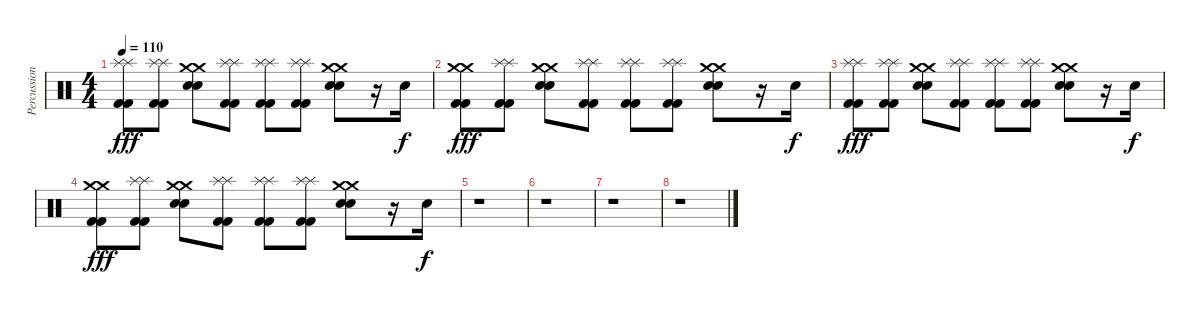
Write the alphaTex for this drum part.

\track ("Percussions" "Percussion") {instrument percussion}
\staff {score}
\articulation defaults
\ts (4 4)
\tempo 110
\clef neutral
\ks c
("Splash (hit)" "Splash (hit)" "Kick (hit) 2" "Kick (hit) 2").8{dy fff} ("Splash (hit)" "Splash (hit)" "Kick (hit) 2" "Kick (hit) 2").8 ("Crash medium (hit)" "Crash medium (hit)" "Snare (hit) 2" "Snare (hit) 2").8 ("Splash (hit)" "Splash (hit)" "Kick (hit) 2" "Kick (hit) 2").8 ("Splash (hit)" "Splash (hit)" "Kick (hit) 2" "Kick (hit) 2").8 ("Splash (hit)" "Splash (hit)" "Kick (hit) 2" "Kick (hit) 2").8 ("Crash medium (hit)" "Crash medium (hit)" "Snare (hit) 2" "Snare (hit) 2").8 r.16 "Snare (hit) 2".16{dy f} |
("Crash medium (hit)" "Crash medium (hit)" "Kick (hit) 2" "Kick (hit) 2").8{dy fff} ("Splash (hit)" "Splash (hit)" "Kick (hit) 2" "Kick (hit) 2").8 ("Crash medium (hit)" "Crash medium (hit)" "Snare (hit) 2" "Snare (hit) 2").8 ("Splash (hit)" "Splash (hit)" "Kick (hit) 2" "Kick (hit) 2").8 ("Splash (hit)" "Splash (hit)" "Kick (hit) 2" "Kick (hit) 2").8 ("Splash (hit)" "Splash (hit)" "Kick (hit) 2" "Kick (hit) 2").8 ("Crash medium (hit)" "Crash medium (hit)" "Snare (hit) 2" "Snare (hit) 2").8 r.16 "Snare (hit) 2".16{dy f} |
("Splash (hit)" "Splash (hit)" "Kick (hit) 2" "Kick (hit) 2").8{dy fff} ("Splash (hit)" "Splash (hit)" "Kick (hit) 2" "Kick (hit) 2").8 ("Crash medium (hit)" "Crash medium (hit)" "Snare (hit) 2" "Snare (hit) 2").8 ("Splash (hit)" "Splash (hit)" "Kick (hit) 2" "Kick (hit) 2").8 ("Splash (hit)" "Splash (hit)" "Kick (hit) 2" "Kick (hit) 2").8 ("Splash (hit)" "Splash (hit)" "Kick (hit) 2" "Kick (hit) 2").8 ("Crash medium (hit)" "Crash medium (hit)" "Snare (hit) 2" "Snare (hit) 2").8 r.16 "Snare (hit) 2".16{dy f} |
("Crash medium (hit)" "Crash medium (hit)" "Kick (hit) 2" "Kick (hit) 2").8{dy fff} ("Splash (hit)" "Splash (hit)" "Kick (hit) 2" "Kick (hit) 2").8 ("Crash medium (hit)" "Crash medium (hit)" "Snare (hit) 2" "Snare (hit) 2").8 ("Splash (hit)" "Splash (hit)" "Kick (hit) 2" "Kick (hit) 2").8 ("Splash (hit)" "Splash (hit)" "Kick (hit) 2" "Kick (hit) 2").8 ("Splash (hit)" "Splash (hit)" "Kick (hit) 2" "Kick (hit) 2").8 ("Crash medium (hit)" "Crash medium (hit)" "Snare (hit) 2" "Snare (hit) 2").8 r.16 "Snare (hit) 2".16{dy f} |
r.1 |
r.1 |
r.1 |
r.1
